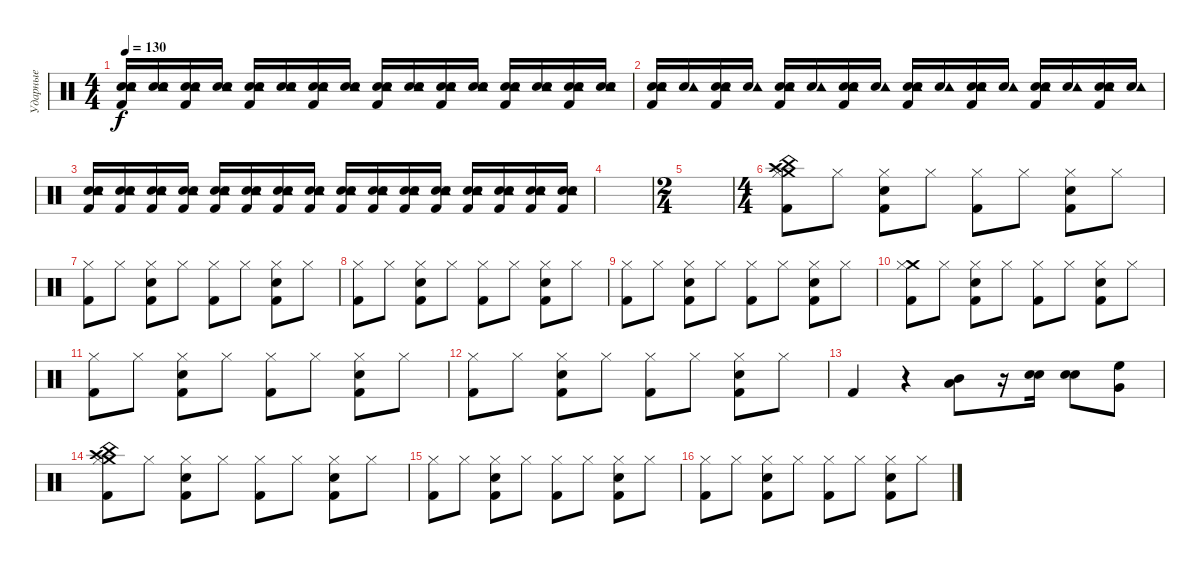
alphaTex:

\track ("Ударные" "Ударные") {solo instrument percussion}
\staff {score}
\articulation defaults
\ts (4 4)
\tempo 130
\clef neutral
\ks c
("Kick (hit) 2" "Hand Clap (hit)" "Snare (hit) 2" "Tambourine (hit)").16{dy f} ("Hand Clap (hit)" "Snare (hit) 2" "Tambourine (hit)").16 ("Kick (hit) 2" "Hand Clap (hit)" "Snare (hit) 2" "Tambourine (hit)").16 ("Hand Clap (hit)" "Snare (hit) 2" "Tambourine (hit)").16 ("Kick (hit) 2" "Hand Clap (hit)" "Snare (hit) 2" "Tambourine (hit)").16 ("Hand Clap (hit)" "Snare (hit) 2" "Tambourine (hit)").16 ("Kick (hit) 2" "Hand Clap (hit)" "Snare (hit) 2" "Tambourine (hit)").16 ("Hand Clap (hit)" "Snare (hit) 2" "Tambourine (hit)").16 ("Kick (hit) 2" "Hand Clap (hit)" "Snare (hit) 2" "Tambourine (hit)").16 ("Hand Clap (hit)" "Snare (hit) 2" "Tambourine (hit)").16 ("Kick (hit) 2" "Hand Clap (hit)" "Snare (hit) 2" "Tambourine (hit)").16 ("Hand Clap (hit)" "Snare (hit) 2" "Tambourine (hit)").16 ("Kick (hit) 2" "Hand Clap (hit)" "Snare (hit) 2" "Tambourine (hit)").16 ("Hand Clap (hit)" "Snare (hit) 2" "Tambourine (hit)").16 ("Kick (hit) 2" "Hand Clap (hit)" "Snare (hit) 2" "Tambourine (hit)").16 ("Hand Clap (hit)" "Snare (hit) 2" "Tambourine (hit)").16 |
("Kick (hit) 2" "Hand Clap (hit)" "Snare (hit) 2" "Tambourine (hit)").16 ("Hand Clap (hit)" "Tambourine (hit)").16 ("Kick (hit) 2" "Hand Clap (hit)" "Snare (hit) 2" "Tambourine (hit)").16 ("Hand Clap (hit)" "Tambourine (hit)").16 ("Kick (hit) 2" "Hand Clap (hit)" "Snare (hit) 2" "Tambourine (hit)").16 ("Hand Clap (hit)" "Tambourine (hit)").16 ("Kick (hit) 2" "Hand Clap (hit)" "Snare (hit) 2" "Tambourine (hit)").16 ("Hand Clap (hit)" "Tambourine (hit)").16 ("Kick (hit) 2" "Hand Clap (hit)" "Snare (hit) 2" "Tambourine (hit)").16 ("Hand Clap (hit)" "Tambourine (hit)").16 ("Kick (hit) 2" "Hand Clap (hit)" "Snare (hit) 2" "Tambourine (hit)").16 ("Hand Clap (hit)" "Tambourine (hit)").16 ("Kick (hit) 2" "Hand Clap (hit)" "Snare (hit) 2" "Tambourine (hit)").16 ("Hand Clap (hit)" "Tambourine (hit)").16 ("Kick (hit) 2" "Hand Clap (hit)" "Snare (hit) 2" "Tambourine (hit)").16 ("Hand Clap (hit)" "Tambourine (hit)").16 |
("Kick (hit) 2" "Hand Clap (hit)" "Snare (hit) 2" "Tambourine (hit)").16 ("Kick (hit) 2" "Hand Clap (hit)" "Snare (hit) 2" "Tambourine (hit)").16 ("Kick (hit) 2" "Hand Clap (hit)" "Snare (hit) 2" "Tambourine (hit)").16 ("Kick (hit) 2" "Hand Clap (hit)" "Snare (hit) 2" "Tambourine (hit)").16 ("Kick (hit) 2" "Hand Clap (hit)" "Snare (hit) 2" "Tambourine (hit)").16 ("Kick (hit) 2" "Hand Clap (hit)" "Snare (hit) 2" "Tambourine (hit)").16 ("Kick (hit) 2" "Hand Clap (hit)" "Snare (hit) 2" "Tambourine (hit)").16 ("Kick (hit) 2" "Hand Clap (hit)" "Snare (hit) 2" "Tambourine (hit)").16 ("Kick (hit) 2" "Hand Clap (hit)" "Snare (hit) 2" "Tambourine (hit)").16 ("Kick (hit) 2" "Hand Clap (hit)" "Snare (hit) 2" "Tambourine (hit)").16 ("Kick (hit) 2" "Hand Clap (hit)" "Snare (hit) 2" "Tambourine (hit)").16 ("Kick (hit) 2" "Hand Clap (hit)" "Snare (hit) 2" "Tambourine (hit)").16 ("Kick (hit) 2" "Hand Clap (hit)" "Snare (hit) 2" "Tambourine (hit)").16 ("Kick (hit) 2" "Hand Clap (hit)" "Snare (hit) 2" "Tambourine (hit)").16 ("Kick (hit) 2" "Hand Clap (hit)" "Snare (hit) 2" "Tambourine (hit)").16 ("Kick (hit) 2" "Hand Clap (hit)" "Snare (hit) 2" "Tambourine (hit)").16 |
|
\ts (2 4)
|
\ts (4 4)
("Kick (hit) 2" "Crash medium (hit)" "China (hit)" "Crash high (hit)" "Hi-Hat (closed)").8 "Hi-Hat (closed)".8 ("Kick (hit) 2" "Hand Clap (hit)" "Hi-Hat (closed)").8 "Hi-Hat (closed)".8 ("Kick (hit) 2" "Hi-Hat (closed)").8 "Hi-Hat (closed)".8 ("Kick (hit) 2" "Hand Clap (hit)" "Hi-Hat (closed)").8 "Hi-Hat (closed)".8 |
("Kick (hit) 2" "Hi-Hat (closed)").8 "Hi-Hat (closed)".8 ("Kick (hit) 2" "Hand Clap (hit)" "Hi-Hat (closed)").8 "Hi-Hat (closed)".8 ("Kick (hit) 2" "Hi-Hat (closed)").8 "Hi-Hat (closed)".8 ("Kick (hit) 2" "Hand Clap (hit)" "Hi-Hat (closed)").8 "Hi-Hat (closed)".8 |
("Kick (hit) 2" "Hi-Hat (closed)").8 "Hi-Hat (closed)".8 ("Kick (hit) 2" "Hand Clap (hit)" "Hi-Hat (closed)").8 "Hi-Hat (closed)".8 ("Kick (hit) 2" "Hi-Hat (closed)").8 "Hi-Hat (closed)".8 ("Kick (hit) 2" "Hand Clap (hit)" "Hi-Hat (closed)").8 "Hi-Hat (closed)".8 |
("Kick (hit) 2" "Hi-Hat (closed)").8 "Hi-Hat (closed)".8 ("Kick (hit) 2" "Hand Clap (hit)" "Hi-Hat (closed)").8 "Hi-Hat (closed)".8 ("Kick (hit) 2" "Hi-Hat (closed)").8 "Hi-Hat (closed)".8 ("Kick (hit) 2" "Hand Clap (hit)" "Hi-Hat (closed)").8 "Hi-Hat (closed)".8 |
("Kick (hit) 2" "Crash medium (hit)" "Hi-Hat (closed)").8 "Hi-Hat (closed)".8 ("Kick (hit) 2" "Hand Clap (hit)" "Hi-Hat (closed)").8 "Hi-Hat (closed)".8 ("Kick (hit) 2" "Hi-Hat (closed)").8 "Hi-Hat (closed)".8 ("Kick (hit) 2" "Hand Clap (hit)" "Hi-Hat (closed)").8 "Hi-Hat (closed)".8 |
("Kick (hit) 2" "Hi-Hat (closed)").8 "Hi-Hat (closed)".8 ("Kick (hit) 2" "Hand Clap (hit)" "Hi-Hat (closed)").8 "Hi-Hat (closed)".8 ("Kick (hit) 2" "Hi-Hat (closed)").8 "Hi-Hat (closed)".8 ("Kick (hit) 2" "Hand Clap (hit)" "Hi-Hat (closed)").8 "Hi-Hat (closed)".8 |
("Kick (hit) 2" "Hi-Hat (closed)").8 "Hi-Hat (closed)".8 ("Kick (hit) 2" "Hand Clap (hit)" "Hi-Hat (closed)").8 "Hi-Hat (closed)".8 ("Kick (hit) 2" "Hi-Hat (closed)").8 "Hi-Hat (closed)".8 ("Kick (hit) 2" "Hand Clap (hit)" "Hi-Hat (closed)").8 "Hi-Hat (closed)".8 |
"Kick (hit) 2".4 r.4 ("Mid Tom (hit)" "Low Floor Tom (hit)").8 r.16 ("Hand Clap (hit)" "Electric Snare (hit)").16 ("Hand Clap (hit)" "Electric Snare (hit)").8 ("Very Low Tom (hit)" "High Floor Tom (hit)").8 |
("Kick (hit) 2" "Crash medium (hit)" "China (hit)" "Crash high (hit)" "Hi-Hat (closed)").8 "Hi-Hat (closed)".8 ("Kick (hit) 2" "Hand Clap (hit)" "Hi-Hat (closed)").8 "Hi-Hat (closed)".8 ("Kick (hit) 2" "Hi-Hat (closed)").8 "Hi-Hat (closed)".8 ("Kick (hit) 2" "Hand Clap (hit)" "Hi-Hat (closed)").8 "Hi-Hat (closed)".8 |
("Kick (hit) 2" "Hi-Hat (closed)").8 "Hi-Hat (closed)".8 ("Kick (hit) 2" "Hand Clap (hit)" "Hi-Hat (closed)").8 "Hi-Hat (closed)".8 ("Kick (hit) 2" "Hi-Hat (closed)").8 "Hi-Hat (closed)".8 ("Kick (hit) 2" "Hand Clap (hit)" "Hi-Hat (closed)").8 "Hi-Hat (closed)".8 |
("Kick (hit) 2" "Hi-Hat (closed)").8 "Hi-Hat (closed)".8 ("Kick (hit) 2" "Hand Clap (hit)" "Hi-Hat (closed)").8 "Hi-Hat (closed)".8 ("Kick (hit) 2" "Hi-Hat (closed)").8 "Hi-Hat (closed)".8 ("Kick (hit) 2" "Hand Clap (hit)" "Hi-Hat (closed)").8 "Hi-Hat (closed)".8
